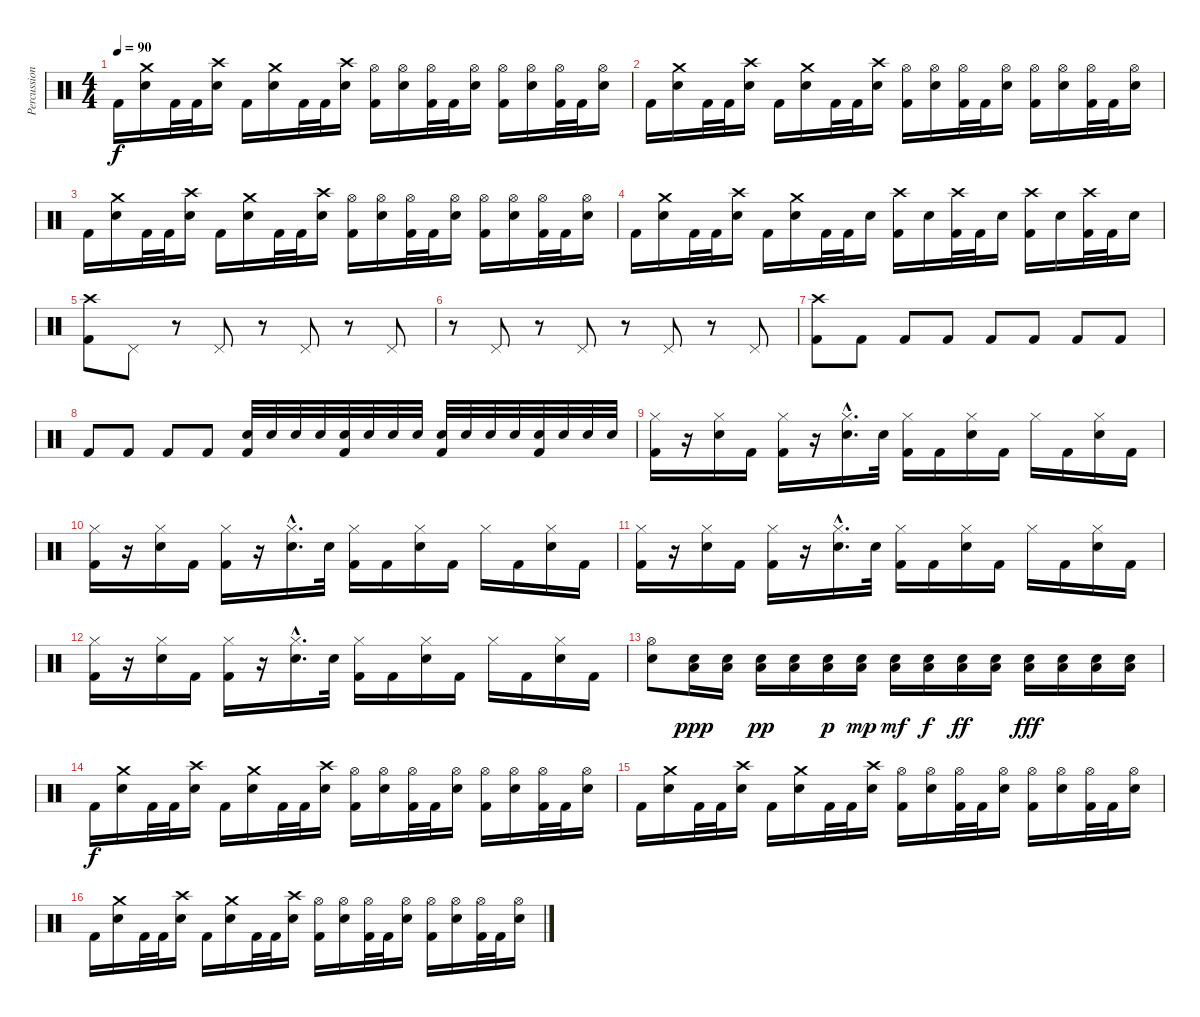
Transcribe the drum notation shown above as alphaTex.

\track ("Percussion" "Percussion") {instrument percussion}
\staff {score}
\articulation defaults
\ts (4 4)
\tempo 90
\clef neutral
\ks c "Kick (hit) 2".16{dy f}
("Crash medium (hit)" "Snare (hit) 2").16 "Kick (hit) 2".32 "Kick (hit) 2".32 ("Crash high (hit)" "Snare (hit) 2").16 "Kick (hit) 2".16 ("Crash medium (hit)" "Snare (hit) 2").16 "Kick (hit) 2".32 "Kick (hit) 2".32 ("Crash high (hit)" "Snare (hit) 2").16 ("Hi-Hat (open)" "Kick (hit) 2").16 ("Hi-Hat (open)" "Snare (hit) 2").16 ("Hi-Hat (open)" "Kick (hit) 2").32 "Kick (hit) 2".32 ("Hi-Hat (open)" "Snare (hit) 2").16 ("Hi-Hat (open)" "Kick (hit) 2").16 ("Hi-Hat (open)" "Snare (hit) 2").16 ("Hi-Hat (open)" "Kick (hit) 2").32 "Kick (hit) 2".32 ("Hi-Hat (open)" "Snare (hit) 2").16 |
"Kick (hit) 2".16 ("Crash medium (hit)" "Snare (hit) 2").16 "Kick (hit) 2".32 "Kick (hit) 2".32 ("Crash high (hit)" "Snare (hit) 2").16 "Kick (hit) 2".16 ("Crash medium (hit)" "Snare (hit) 2").16 "Kick (hit) 2".32 "Kick (hit) 2".32 ("Crash high (hit)" "Snare (hit) 2").16 ("Hi-Hat (open)" "Kick (hit) 2").16 ("Hi-Hat (open)" "Snare (hit) 2").16 ("Hi-Hat (open)" "Kick (hit) 2").32 "Kick (hit) 2".32 ("Hi-Hat (open)" "Snare (hit) 2").16 ("Hi-Hat (open)" "Kick (hit) 2").16 ("Hi-Hat (open)" "Snare (hit) 2").16 ("Hi-Hat (open)" "Kick (hit) 2").32 "Kick (hit) 2".32 ("Hi-Hat (open)" "Snare (hit) 2").16 |
"Kick (hit) 2".16 ("Crash medium (hit)" "Snare (hit) 2").16 "Kick (hit) 2".32 "Kick (hit) 2".32 ("Crash high (hit)" "Snare (hit) 2").16 "Kick (hit) 2".16 ("Crash medium (hit)" "Snare (hit) 2").16 "Kick (hit) 2".32 "Kick (hit) 2".32 ("Crash high (hit)" "Snare (hit) 2").16 ("Hi-Hat (open)" "Kick (hit) 2").16 ("Hi-Hat (open)" "Snare (hit) 2").16 ("Hi-Hat (open)" "Kick (hit) 2").32 "Kick (hit) 2".32 ("Hi-Hat (open)" "Snare (hit) 2").16 ("Hi-Hat (open)" "Kick (hit) 2").16 ("Hi-Hat (open)" "Snare (hit) 2").16 ("Hi-Hat (open)" "Kick (hit) 2").32 "Kick (hit) 2".32 ("Hi-Hat (open)" "Snare (hit) 2").16 |
"Kick (hit) 2".16 ("Crash medium (hit)" "Snare (hit) 2").16 "Kick (hit) 2".32 "Kick (hit) 2".32 ("Crash high (hit)" "Snare (hit) 2").16 "Kick (hit) 2".16 ("Crash medium (hit)" "Snare (hit) 2").16 "Kick (hit) 2".32 "Kick (hit) 2".32 "Snare (hit) 2".16 ("Crash high (hit)" "Kick (hit) 2").16 "Snare (hit) 2".16 ("Crash high (hit)" "Kick (hit) 2").32 "Kick (hit) 2".32 "Snare (hit) 2".16 ("Crash high (hit)" "Kick (hit) 2").16 "Snare (hit) 2".16 ("Crash high (hit)" "Kick (hit) 2").32 "Kick (hit) 2".32 "Snare (hit) 2".16 |
("Crash high (hit)" "Kick (hit) 2").8 "Pedal Hi-Hat (hit)".8 r.8 "Pedal Hi-Hat (hit)".8 r.8 "Pedal Hi-Hat (hit)".8 r.8 "Pedal Hi-Hat (hit)".8 |
r.8 "Pedal Hi-Hat (hit)".8 r.8 "Pedal Hi-Hat (hit)".8 r.8 "Pedal Hi-Hat (hit)".8 r.8 "Pedal Hi-Hat (hit)".8 |
("Crash high (hit)" "Kick (hit) 2").8 "Kick (hit) 2".8 "Kick (hit) 2".8 "Kick (hit) 2".8 "Kick (hit) 2".8 "Kick (hit) 2".8 "Kick (hit) 2".8 "Kick (hit) 2".8 |
"Kick (hit) 2".8 "Kick (hit) 2".8 "Kick (hit) 2".8 "Kick (hit) 2".8 ("Kick (hit) 2" "Snare (hit) 2").32 "Snare (hit) 2".32 "Snare (hit) 2".32 "Snare (hit) 2".32 ("Kick (hit) 2" "Snare (hit) 2").32 "Snare (hit) 2".32 "Snare (hit) 2".32 "Snare (hit) 2".32 ("Kick (hit) 2" "Snare (hit) 2").32 "Snare (hit) 2".32 "Snare (hit) 2".32 "Snare (hit) 2".32 ("Kick (hit) 2" "Snare (hit) 2").32 "Snare (hit) 2".32 "Snare (hit) 2".32 "Snare (hit) 2".32 |
("Hi-Hat (closed)" "Kick (hit) 2").16 r.16 ("Hi-Hat (closed)" "Snare (hit) 2").16 "Kick (hit) 2".16 ("Hi-Hat (closed)" "Kick (hit) 2").16 r.16 ("Hi-Hat (closed)"{hac} "Snare (hit) 2"{hac}).16{d} "Snare (hit) 2".32 ("Hi-Hat (closed)" "Kick (hit) 2").16 "Kick (hit) 2".16 ("Hi-Hat (closed)" "Snare (hit) 2").16 "Kick (hit) 2".16 "Hi-Hat (closed)".16 "Kick (hit) 2".16 ("Hi-Hat (closed)" "Snare (hit) 2").16 "Kick (hit) 2".16 |
("Hi-Hat (closed)" "Kick (hit) 2").16 r.16 ("Hi-Hat (closed)" "Snare (hit) 2").16 "Kick (hit) 2".16 ("Hi-Hat (closed)" "Kick (hit) 2").16 r.16 ("Hi-Hat (closed)"{hac} "Snare (hit) 2"{hac}).16{d} "Snare (hit) 2".32 ("Hi-Hat (closed)" "Kick (hit) 2").16 "Kick (hit) 2".16 ("Hi-Hat (closed)" "Snare (hit) 2").16 "Kick (hit) 2".16 "Hi-Hat (closed)".16 "Kick (hit) 2".16 ("Hi-Hat (closed)" "Snare (hit) 2").16 "Kick (hit) 2".16 |
("Hi-Hat (closed)" "Kick (hit) 2").16 r.16 ("Hi-Hat (closed)" "Snare (hit) 2").16 "Kick (hit) 2".16 ("Hi-Hat (closed)" "Kick (hit) 2").16 r.16 ("Hi-Hat (closed)"{hac} "Snare (hit) 2"{hac}).16{d} "Snare (hit) 2".32 ("Hi-Hat (closed)" "Kick (hit) 2").16 "Kick (hit) 2".16 ("Hi-Hat (closed)" "Snare (hit) 2").16 "Kick (hit) 2".16 "Hi-Hat (closed)".16 "Kick (hit) 2".16 ("Hi-Hat (closed)" "Snare (hit) 2").16 "Kick (hit) 2".16 |
("Hi-Hat (closed)" "Kick (hit) 2").16 r.16 ("Hi-Hat (closed)" "Snare (hit) 2").16 "Kick (hit) 2".16 ("Hi-Hat (closed)" "Kick (hit) 2").16 r.16 ("Hi-Hat (closed)"{hac} "Snare (hit) 2"{hac}).16{d} "Snare (hit) 2".32 ("Hi-Hat (closed)" "Kick (hit) 2").16 "Kick (hit) 2".16 ("Hi-Hat (closed)" "Snare (hit) 2").16 "Kick (hit) 2".16 "Hi-Hat (closed)".16 "Kick (hit) 2".16 ("Hi-Hat (closed)" "Snare (hit) 2").16 "Kick (hit) 2".16 |
("Snare (hit) 2" "Hi-Hat (open)").8 ("Low Floor Tom (hit)" "Snare (hit) 2").16{dy ppp} ("Low Floor Tom (hit)" "Snare (hit) 2").16 ("Low Floor Tom (hit)" "Snare (hit) 2").16{dy pp} ("Low Floor Tom (hit)" "Snare (hit) 2").16 ("Low Floor Tom (hit)" "Snare (hit) 2").16{dy p} ("Low Floor Tom (hit)" "Snare (hit) 2").16{dy mp} ("Low Floor Tom (hit)" "Snare (hit) 2").16{dy mf} ("Low Floor Tom (hit)" "Snare (hit) 2").16{dy f} ("Low Floor Tom (hit)" "Snare (hit) 2").16{dy ff} ("Low Floor Tom (hit)" "Snare (hit) 2").16 ("Low Floor Tom (hit)" "Snare (hit) 2").16{dy fff} ("Low Floor Tom (hit)" "Snare (hit) 2").16 ("Low Floor Tom (hit)" "Snare (hit) 2").16 ("Low Floor Tom (hit)" "Snare (hit) 2").16 |
"Kick (hit) 2".16{dy f} ("Crash medium (hit)" "Snare (hit) 2").16 "Kick (hit) 2".32 "Kick (hit) 2".32 ("Crash high (hit)" "Snare (hit) 2").16 "Kick (hit) 2".16 ("Crash medium (hit)" "Snare (hit) 2").16 "Kick (hit) 2".32 "Kick (hit) 2".32 ("Crash high (hit)" "Snare (hit) 2").16 ("Hi-Hat (open)" "Kick (hit) 2").16 ("Hi-Hat (open)" "Snare (hit) 2").16 ("Hi-Hat (open)" "Kick (hit) 2").32 "Kick (hit) 2".32 ("Hi-Hat (open)" "Snare (hit) 2").16 ("Hi-Hat (open)" "Kick (hit) 2").16 ("Hi-Hat (open)" "Snare (hit) 2").16 ("Hi-Hat (open)" "Kick (hit) 2").32 "Kick (hit) 2".32 ("Hi-Hat (open)" "Snare (hit) 2").16 |
"Kick (hit) 2".16 ("Crash medium (hit)" "Snare (hit) 2").16 "Kick (hit) 2".32 "Kick (hit) 2".32 ("Crash high (hit)" "Snare (hit) 2").16 "Kick (hit) 2".16 ("Crash medium (hit)" "Snare (hit) 2").16 "Kick (hit) 2".32 "Kick (hit) 2".32 ("Crash high (hit)" "Snare (hit) 2").16 ("Hi-Hat (open)" "Kick (hit) 2").16 ("Hi-Hat (open)" "Snare (hit) 2").16 ("Hi-Hat (open)" "Kick (hit) 2").32 "Kick (hit) 2".32 ("Hi-Hat (open)" "Snare (hit) 2").16 ("Hi-Hat (open)" "Kick (hit) 2").16 ("Hi-Hat (open)" "Snare (hit) 2").16 ("Hi-Hat (open)" "Kick (hit) 2").32 "Kick (hit) 2".32 ("Hi-Hat (open)" "Snare (hit) 2").16 |
"Kick (hit) 2".16 ("Crash medium (hit)" "Snare (hit) 2").16 "Kick (hit) 2".32 "Kick (hit) 2".32 ("Crash high (hit)" "Snare (hit) 2").16 "Kick (hit) 2".16 ("Crash medium (hit)" "Snare (hit) 2").16 "Kick (hit) 2".32 "Kick (hit) 2".32 ("Crash high (hit)" "Snare (hit) 2").16 ("Hi-Hat (open)" "Kick (hit) 2").16 ("Hi-Hat (open)" "Snare (hit) 2").16 ("Hi-Hat (open)" "Kick (hit) 2").32 "Kick (hit) 2".32 ("Hi-Hat (open)" "Snare (hit) 2").16 ("Hi-Hat (open)" "Kick (hit) 2").16 ("Hi-Hat (open)" "Snare (hit) 2").16 ("Hi-Hat (open)" "Kick (hit) 2").32 "Kick (hit) 2".32 ("Hi-Hat (open)" "Snare (hit) 2").16
